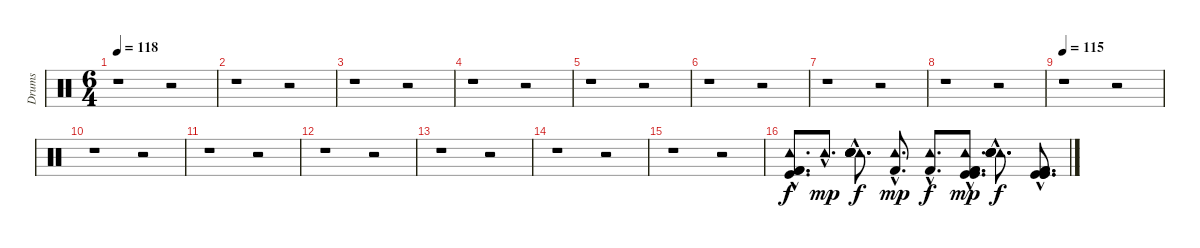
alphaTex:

\track ("Drums" "Drums") {instrument percussion}
\staff {score}
\articulation defaults
\ts (6 4)
\tempo 118
\tempo 112
\tempo 118
\clef neutral
\ks c
r.1{dy f} r.2 |
r.1 r.2 |
r.1 r.2 |
r.1 r.2 |
r.1 r.2 |
r.1 r.2 |
r.1 r.2 |
r.1 r.2 |
\tempo 115
r.1 r.2 |
r.1 r.2 |
r.1 r.2 |
r.1 r.2 |
r.1 r.2 |
r.1 r.2 |
r.1 r.2 |
("Tambourine (hit)"{hac} "Kick (hit) 2"{hac} "Kick (hit) 2"{hac} "Kick (hit)"{hac}).8{d} "Tambourine (hit)"{hac}.8{d dy mp} ("Tambourine (hit)"{hac} "Hand Clap (hit)"{hac} "Hand Clap (hit)"{hac} "Hand Clap (hit)"{hac} "Hand Clap (hit)"{hac}).8{d dy f} ("Tambourine (hit)"{hac} "Kick (hit) 2"{hac}).8{d dy mp} ("Tambourine (hit)"{hac} "Kick (hit) 2"{hac}).8{d dy f} ("Tambourine (hit)"{hac} "Kick (hit) 2"{hac} "Kick (hit)"{hac} "Kick (hit)"{hac} "Kick (hit) 2"{hac}).8{d dy mp} ("Tambourine (hit)"{hac} "Hand Clap (hit)"{hac} "Hand Clap (hit)"{hac} "Hand Clap (hit)"{hac} "Hand Clap (hit)"{hac}).8{d dy f} ("Kick (hit) 2"{hac} "Kick (hit) 2"{hac} "Kick (hit)"{hac} "Kick (hit)"{hac} "Kick (hit)"{hac}).8{d}
